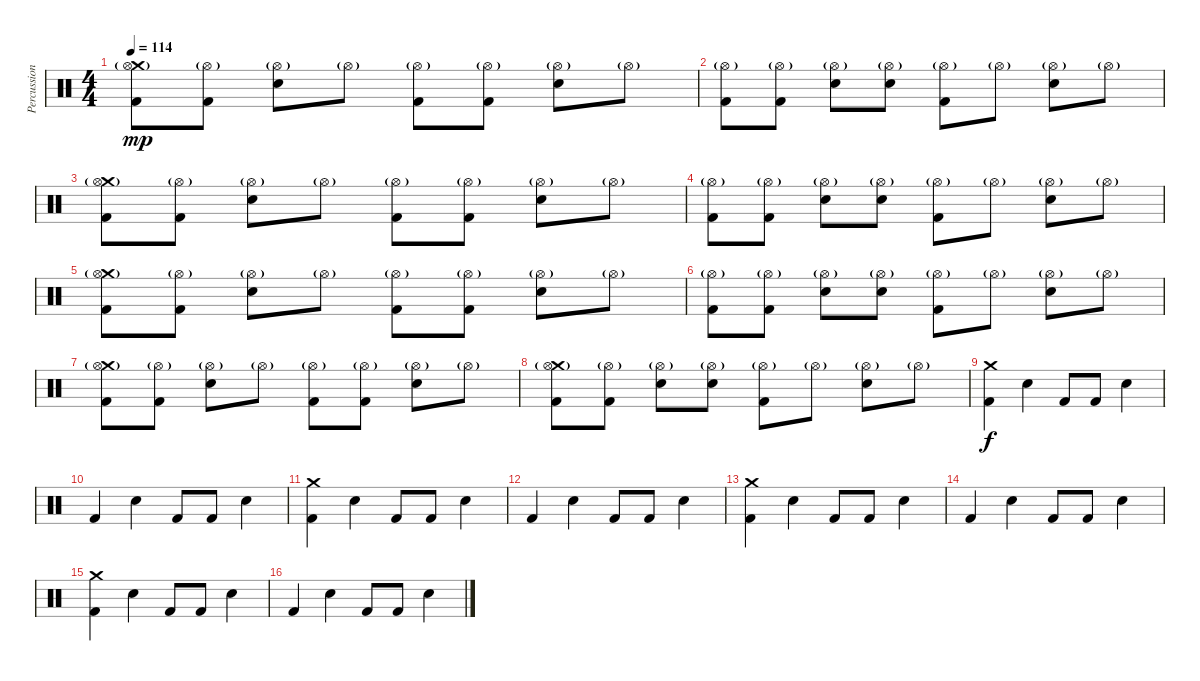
\track ("Percussion" "Percussion") {instrument percussion}
\staff {score}
\articulation defaults
\ts (4 4)
\tempo 114
\clef neutral
\ks c
("Crash medium (hit)" "Kick (hit) 2" "Hi-Hat (open)"{g}).8{dy mp} ("Kick (hit) 2" "Hi-Hat (open)"{g}).8 ("Snare (hit) 2" "Hi-Hat (open)"{g}).8 "Hi-Hat (open)"{g}.8 ("Kick (hit) 2" "Hi-Hat (open)"{g}).8 ("Kick (hit) 2" "Hi-Hat (open)"{g}).8 ("Snare (hit) 2" "Hi-Hat (open)"{g}).8 "Hi-Hat (open)"{g}.8 |
("Kick (hit) 2" "Hi-Hat (open)"{g}).8 ("Kick (hit) 2" "Hi-Hat (open)"{g}).8 ("Snare (hit) 2" "Hi-Hat (open)"{g}).8 ("Snare (hit) 2" "Hi-Hat (open)"{g}).8 ("Kick (hit) 2" "Hi-Hat (open)"{g}).8 "Hi-Hat (open)"{g}.8 ("Snare (hit) 2" "Hi-Hat (open)"{g}).8 "Hi-Hat (open)"{g}.8 |
("Crash medium (hit)" "Kick (hit) 2" "Hi-Hat (open)"{g}).8 ("Kick (hit) 2" "Hi-Hat (open)"{g}).8 ("Snare (hit) 2" "Hi-Hat (open)"{g}).8 "Hi-Hat (open)"{g}.8 ("Kick (hit) 2" "Hi-Hat (open)"{g}).8 ("Kick (hit) 2" "Hi-Hat (open)"{g}).8 ("Snare (hit) 2" "Hi-Hat (open)"{g}).8 "Hi-Hat (open)"{g}.8 |
("Kick (hit) 2" "Hi-Hat (open)"{g}).8 ("Kick (hit) 2" "Hi-Hat (open)"{g}).8 ("Snare (hit) 2" "Hi-Hat (open)"{g}).8 ("Snare (hit) 2" "Hi-Hat (open)"{g}).8 ("Kick (hit) 2" "Hi-Hat (open)"{g}).8 "Hi-Hat (open)"{g}.8 ("Snare (hit) 2" "Hi-Hat (open)"{g}).8 "Hi-Hat (open)"{g}.8 |
("Crash medium (hit)" "Kick (hit) 2" "Hi-Hat (open)"{g}).8 ("Kick (hit) 2" "Hi-Hat (open)"{g}).8 ("Snare (hit) 2" "Hi-Hat (open)"{g}).8 "Hi-Hat (open)"{g}.8 ("Kick (hit) 2" "Hi-Hat (open)"{g}).8 ("Kick (hit) 2" "Hi-Hat (open)"{g}).8 ("Snare (hit) 2" "Hi-Hat (open)"{g}).8 "Hi-Hat (open)"{g}.8 |
("Kick (hit) 2" "Hi-Hat (open)"{g}).8 ("Kick (hit) 2" "Hi-Hat (open)"{g}).8 ("Snare (hit) 2" "Hi-Hat (open)"{g}).8 ("Snare (hit) 2" "Hi-Hat (open)"{g}).8 ("Kick (hit) 2" "Hi-Hat (open)"{g}).8 "Hi-Hat (open)"{g}.8 ("Snare (hit) 2" "Hi-Hat (open)"{g}).8 "Hi-Hat (open)"{g}.8 |
("Crash medium (hit)" "Kick (hit) 2" "Hi-Hat (open)"{g}).8 ("Kick (hit) 2" "Hi-Hat (open)"{g}).8 ("Snare (hit) 2" "Hi-Hat (open)"{g}).8 "Hi-Hat (open)"{g}.8 ("Kick (hit) 2" "Hi-Hat (open)"{g}).8 ("Kick (hit) 2" "Hi-Hat (open)"{g}).8 ("Snare (hit) 2" "Hi-Hat (open)"{g}).8 "Hi-Hat (open)"{g}.8 |
("Crash medium (hit)" "Kick (hit) 2" "Hi-Hat (open)"{g}).8 ("Kick (hit) 2" "Hi-Hat (open)"{g}).8 ("Snare (hit) 2" "Hi-Hat (open)"{g}).8 ("Snare (hit) 2" "Hi-Hat (open)"{g}).8 ("Kick (hit) 2" "Hi-Hat (open)"{g}).8 "Hi-Hat (open)"{g}.8 ("Snare (hit) 2" "Hi-Hat (open)"{g}).8 "Hi-Hat (open)"{g}.8 |
("Crash medium (hit)" "Kick (hit) 2").4{dy f} "Snare (hit) 2".4 "Kick (hit) 2".8 "Kick (hit) 2".8 "Snare (hit) 2".4 |
"Kick (hit) 2".4 "Snare (hit) 2".4 "Kick (hit) 2".8 "Kick (hit) 2".8 "Snare (hit) 2".4 |
("Crash medium (hit)" "Kick (hit) 2").4 "Snare (hit) 2".4 "Kick (hit) 2".8 "Kick (hit) 2".8 "Snare (hit) 2".4 |
"Kick (hit) 2".4 "Snare (hit) 2".4 "Kick (hit) 2".8 "Kick (hit) 2".8 "Snare (hit) 2".4 |
("Crash medium (hit)" "Kick (hit) 2").4 "Snare (hit) 2".4 "Kick (hit) 2".8 "Kick (hit) 2".8 "Snare (hit) 2".4 |
"Kick (hit) 2".4 "Snare (hit) 2".4 "Kick (hit) 2".8 "Kick (hit) 2".8 "Snare (hit) 2".4 |
("Crash medium (hit)" "Kick (hit) 2").4 "Snare (hit) 2".4 "Kick (hit) 2".8 "Kick (hit) 2".8 "Snare (hit) 2".4 |
"Kick (hit) 2".4 "Snare (hit) 2".4 "Kick (hit) 2".8 "Kick (hit) 2".8 "Snare (hit) 2".4
